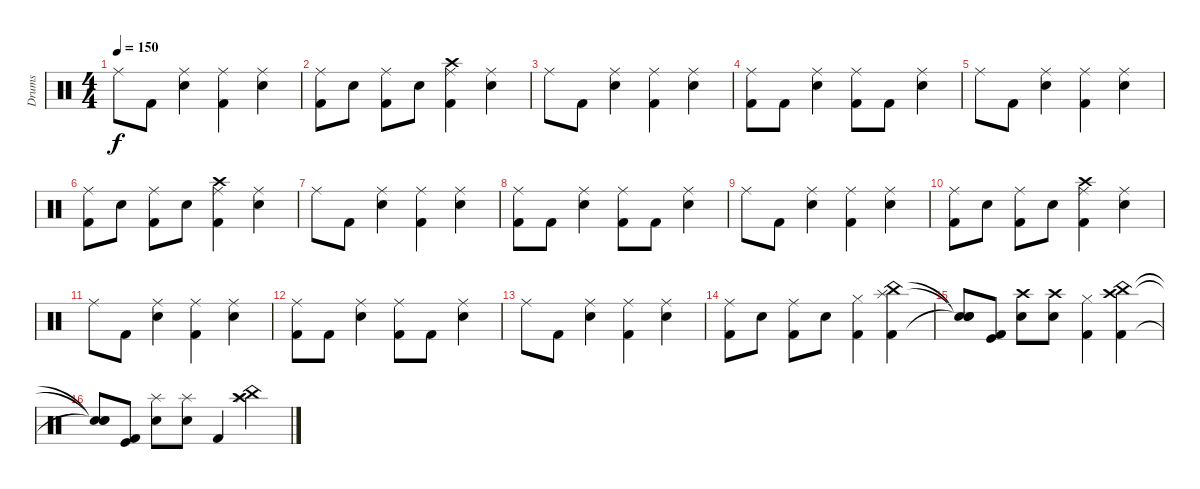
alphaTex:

\track ("Drums" "Drums") {instrument percussion}
\staff {score}
\articulation defaults
\ts (4 4)
\tempo 150
\clef neutral
\ks c "Ride (middle)".8{dy f} "Kick (hit) 2".8
("Ride (middle)" "Snare (hit) 2").4 ("Ride (middle)" "Kick (hit) 2").4 ("Ride (middle)" "Snare (hit) 2").4 |
("Ride (middle)" "Kick (hit) 2").8 "Snare (hit) 2".8 ("Ride (middle)" "Kick (hit) 2").8 "Snare (hit) 2".8 ("Crash high (hit)" "Ride (middle)" "Kick (hit) 2").4 ("Ride (middle)" "Snare (hit) 2").4 |
"Ride (middle)".8 "Kick (hit) 2".8 ("Ride (middle)" "Snare (hit) 2").4 ("Ride (middle)" "Kick (hit) 2").4 ("Ride (middle)" "Snare (hit) 2").4 |
("Ride (middle)" "Kick (hit) 2").8 "Kick (hit) 2".8 ("Ride (middle)" "Snare (hit) 2").4 ("Ride (middle)" "Kick (hit) 2").8 "Kick (hit) 2".8 ("Ride (middle)" "Snare (hit) 2").4 |
"Ride (middle)".8 "Kick (hit) 2".8 ("Ride (middle)" "Snare (hit) 2").4 ("Ride (middle)" "Kick (hit) 2").4 ("Ride (middle)" "Snare (hit) 2").4 |
("Ride (middle)" "Kick (hit) 2").8 "Snare (hit) 2".8 ("Ride (middle)" "Kick (hit) 2").8 "Snare (hit) 2".8 ("Crash high (hit)" "Ride (middle)" "Kick (hit) 2").4 ("Ride (middle)" "Snare (hit) 2").4 |
"Ride (middle)".8 "Kick (hit) 2".8 ("Ride (middle)" "Snare (hit) 2").4 ("Ride (middle)" "Kick (hit) 2").4 ("Ride (middle)" "Snare (hit) 2").4 |
("Ride (middle)" "Kick (hit) 2").8 "Kick (hit) 2".8 ("Ride (middle)" "Snare (hit) 2").4 ("Ride (middle)" "Kick (hit) 2").8 "Kick (hit) 2".8 ("Ride (middle)" "Snare (hit) 2").4 |
"Ride (middle)".8 "Kick (hit) 2".8 ("Ride (middle)" "Snare (hit) 2").4 ("Ride (middle)" "Kick (hit) 2").4 ("Ride (middle)" "Snare (hit) 2").4 |
("Ride (middle)" "Kick (hit) 2").8 "Snare (hit) 2".8 ("Ride (middle)" "Kick (hit) 2").8 "Snare (hit) 2".8 ("Crash high (hit)" "Ride (middle)" "Kick (hit) 2").4 ("Ride (middle)" "Snare (hit) 2").4 |
"Ride (middle)".8 "Kick (hit) 2".8 ("Ride (middle)" "Snare (hit) 2").4 ("Ride (middle)" "Kick (hit) 2").4 ("Ride (middle)" "Snare (hit) 2").4 |
("Ride (middle)" "Kick (hit) 2").8 "Kick (hit) 2".8 ("Ride (middle)" "Snare (hit) 2").4 ("Ride (middle)" "Kick (hit) 2").8 "Kick (hit) 2".8 ("Ride (middle)" "Snare (hit) 2").4 |
"Ride (middle)".8 "Kick (hit) 2".8 ("Ride (middle)" "Snare (hit) 2").4 ("Ride (middle)" "Kick (hit) 2").4 ("Ride (middle)" "Snare (hit) 2").4 |
("Ride (middle)" "Kick (hit) 2").8 "Snare (hit) 2".8 ("Ride (middle)" "Kick (hit) 2").8 "Snare (hit) 2".8 ("Hi-Hat (closed)" "Kick (hit) 2").4 ("Splash (hit)" "China (hit)" "Kick (hit) 2").4 |
("Snare (hit)"{t} "Snare (hit)"{t} "Snare (hit)"{t}).8 ("Kick (hit)" "Kick (hit) 2").8 ("Crash high (hit)" "Snare (hit) 2").8 ("Crash high (hit)" "Snare (hit) 2").8 ("Hi-Hat (closed)" "Kick (hit) 2").4 ("Crash high (hit)" "China (hit)" "Kick (hit) 2").4 |
("Snare (hit)"{t} "Snare (hit)"{t} "Snare (hit)"{t}).8 ("Kick (hit)" "Kick (hit) 2").8 ("Splash (hit)" "Snare (hit) 2").8 ("Splash (hit)" "Snare (hit) 2").8 "Kick (hit) 2".4 ("Splash (hit)" "China (hit)" "Crash high (hit)").4
